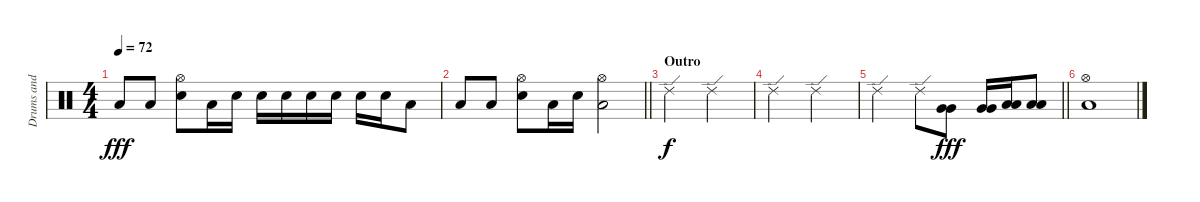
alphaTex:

\track ("Drums and Percussions" "Drums and ") {instrument percussion}
\staff {score}
\articulation defaults
\ts (4 4)
\tempo 72
\clef neutral
\ks c "Low Floor Tom (hit)".8{dy fff} "Low Floor Tom (hit)".8
("Hi-Hat (open)" "Snare (hit) 2").8 "Low Floor Tom (hit)".16 "Snare (hit) 2".16 "Snare (hit) 2".16 "Snare (hit) 2".16 "Snare (hit) 2".16 "Snare (hit) 2".16 "Snare (hit) 2".16 "Snare (hit) 2".16 "Low Floor Tom (hit)".8 |
\barLineRight lightlight "Low Floor Tom (hit)".8 "Low Floor Tom (hit)".8
("Hi-Hat (open)" "Snare (hit) 2").8 "Low Floor Tom (hit)".16 "Snare (hit) 2".16 ("Hi-Hat (open)" "Low Floor Tom (hit)").2 |
\section ("" "Outro")
"Ride (edge) 2".2{dy f} "Ride (edge) 2".2 |
"Ride (edge) 2".2 "Ride (edge) 2".2 |
\barLineRight lightlight "Ride (edge) 2".2 "Ride (edge) 2".8
("Very Low Tom (hit)" "Very Low Tom (hit)").8{dy fff} ("Very Low Tom (hit)" "Very Low Tom (hit)").16 ("Low Floor Tom (hit)" "Low Floor Tom (hit)").16 ("Low Floor Tom (hit)" "Low Floor Tom (hit)").8 |
("Hi-Hat (open)" "Low Floor Tom (hit)").1
